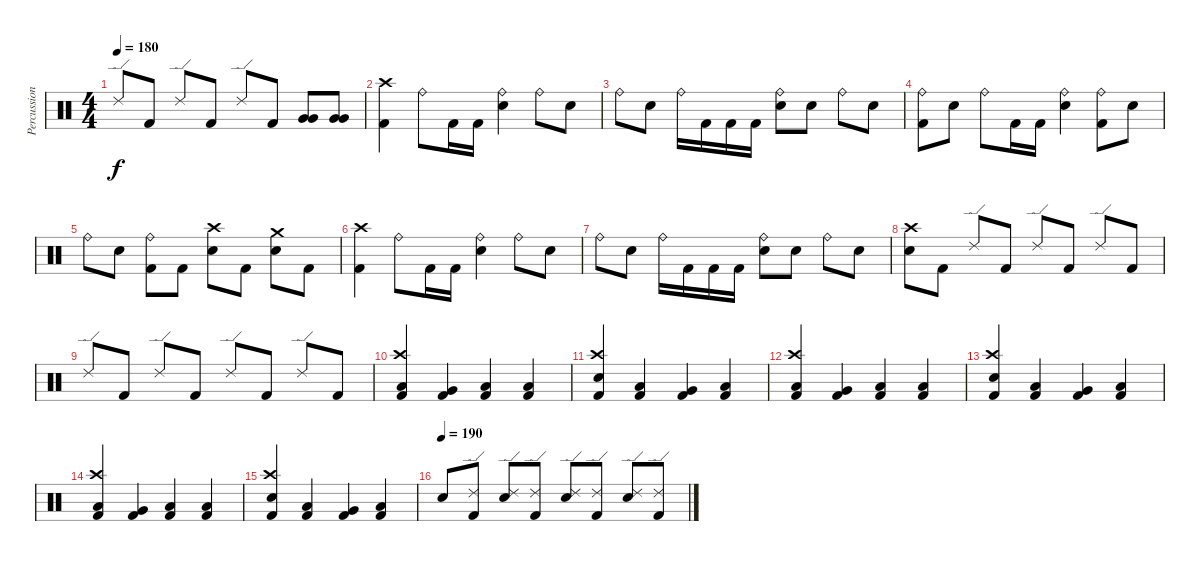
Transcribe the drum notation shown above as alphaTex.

\track ("Percussions" "Percussion") {instrument percussion}
\staff {score}
\articulation defaults
\ts (4 4)
\tempo 180
\clef neutral
\ks c "Ride (edge) 2".8{dy f} "Kick (hit) 2".8 "Ride (edge) 2".8 "Kick (hit) 2".8 "Ride (edge) 2".8 "Kick (hit) 2".8
("Very Low Tom (hit)" "Very Low Tom (hit)").8{bd 240} ("Very Low Tom (hit)" "Very Low Tom (hit)").8 |
("Crash high (hit)" "Kick (hit) 2").4 "Ride (bell)".8 "Kick (hit) 2".16 "Kick (hit) 2".16 ("Ride (bell)" "Snare (hit) 2").4 "Ride (bell)".8 "Snare (hit) 2".8 |
"Ride (bell)".8 "Snare (hit) 2".8 "Ride (bell)".16 "Kick (hit) 2".16 "Kick (hit) 2".16 "Kick (hit) 2".16 ("Ride (bell)" "Snare (hit) 2").8 "Snare (hit) 2".8 "Ride (bell)".8 "Snare (hit) 2".8 |
("Ride (bell)" "Kick (hit) 2").8 "Snare (hit) 2".8 "Ride (bell)".8 "Kick (hit) 2".16 "Kick (hit) 2".16 ("Ride (bell)" "Snare (hit) 2").4 ("Ride (bell)" "Kick (hit) 2").8 "Snare (hit) 2".8 |
"Ride (bell)".8 "Snare (hit) 2".8 ("Ride (bell)" "Kick (hit) 2").8 "Kick (hit) 2".8 ("Crash high (hit)" "Snare (hit) 2").8 "Kick (hit) 2".8 ("Crash medium (hit)" "Snare (hit) 2").8 "Kick (hit) 2".8 |
("Crash high (hit)" "Kick (hit) 2").4 "Ride (bell)".8 "Kick (hit) 2".16 "Kick (hit) 2".16 ("Ride (bell)" "Snare (hit) 2").4 "Ride (bell)".8 "Snare (hit) 2".8 |
"Ride (bell)".8 "Snare (hit) 2".8 "Ride (bell)".16 "Kick (hit) 2".16 "Kick (hit) 2".16 "Kick (hit) 2".16 ("Ride (bell)" "Snare (hit) 2").8 "Snare (hit) 2".8 "Ride (bell)".8 "Snare (hit) 2".8 |
("Crash high (hit)" "Snare (hit) 2").8 "Kick (hit) 2".8 "Ride (edge) 2".8 "Kick (hit) 2".8 "Ride (edge) 2".8 "Kick (hit) 2".8 "Ride (edge) 2".8 "Kick (hit) 2".8 |
"Ride (edge) 2".8 "Kick (hit) 2".8 "Ride (edge) 2".8 "Kick (hit) 2".8 "Ride (edge) 2".8 "Kick (hit) 2".8 "Ride (edge) 2".8 "Kick (hit) 2".8 |
("Crash high (hit)" "Low Tom (hit)" "Kick (hit) 2").4 ("Very Low Tom (hit)" "Kick (hit) 2").4 ("Low Floor Tom (hit)" "Kick (hit) 2").4 ("Low Floor Tom (hit)" "Kick (hit) 2").4 |
("Crash high (hit)" "Snare (hit) 2" "Kick (hit) 2").4 ("Low Tom (hit)" "Kick (hit) 2").4 ("Very Low Tom (hit)" "Kick (hit) 2").4 ("Low Floor Tom (hit)" "Kick (hit) 2").4 |
("Crash high (hit)" "Low Tom (hit)" "Kick (hit) 2").4 ("Very Low Tom (hit)" "Kick (hit) 2").4 ("Low Floor Tom (hit)" "Kick (hit) 2").4 ("Low Floor Tom (hit)" "Kick (hit) 2").4 |
("Crash high (hit)" "Snare (hit) 2" "Kick (hit) 2").4 ("Low Tom (hit)" "Kick (hit) 2").4 ("Very Low Tom (hit)" "Kick (hit) 2").4 ("Low Floor Tom (hit)" "Kick (hit) 2").4 |
("Crash high (hit)" "Low Tom (hit)" "Kick (hit) 2").4 ("Very Low Tom (hit)" "Kick (hit) 2").4 ("Low Floor Tom (hit)" "Kick (hit) 2").4 ("Low Floor Tom (hit)" "Kick (hit) 2").4 |
("Crash high (hit)" "Snare (hit) 2" "Kick (hit) 2").4 ("Low Tom (hit)" "Kick (hit) 2").4 ("Very Low Tom (hit)" "Kick (hit) 2").4 ("Low Floor Tom (hit)" "Kick (hit) 2").4 |
\tempo (190)
"Snare (hit) 2".8 ("Ride (edge) 2" "Kick (hit) 2").8 ("Ride (edge) 2" "Snare (hit) 2").8 ("Ride (edge) 2" "Kick (hit) 2").8 ("Ride (edge) 2" "Snare (hit) 2").8 ("Ride (edge) 2" "Kick (hit) 2").8 ("Ride (edge) 2" "Snare (hit) 2").8 ("Ride (edge) 2" "Kick (hit) 2").8
